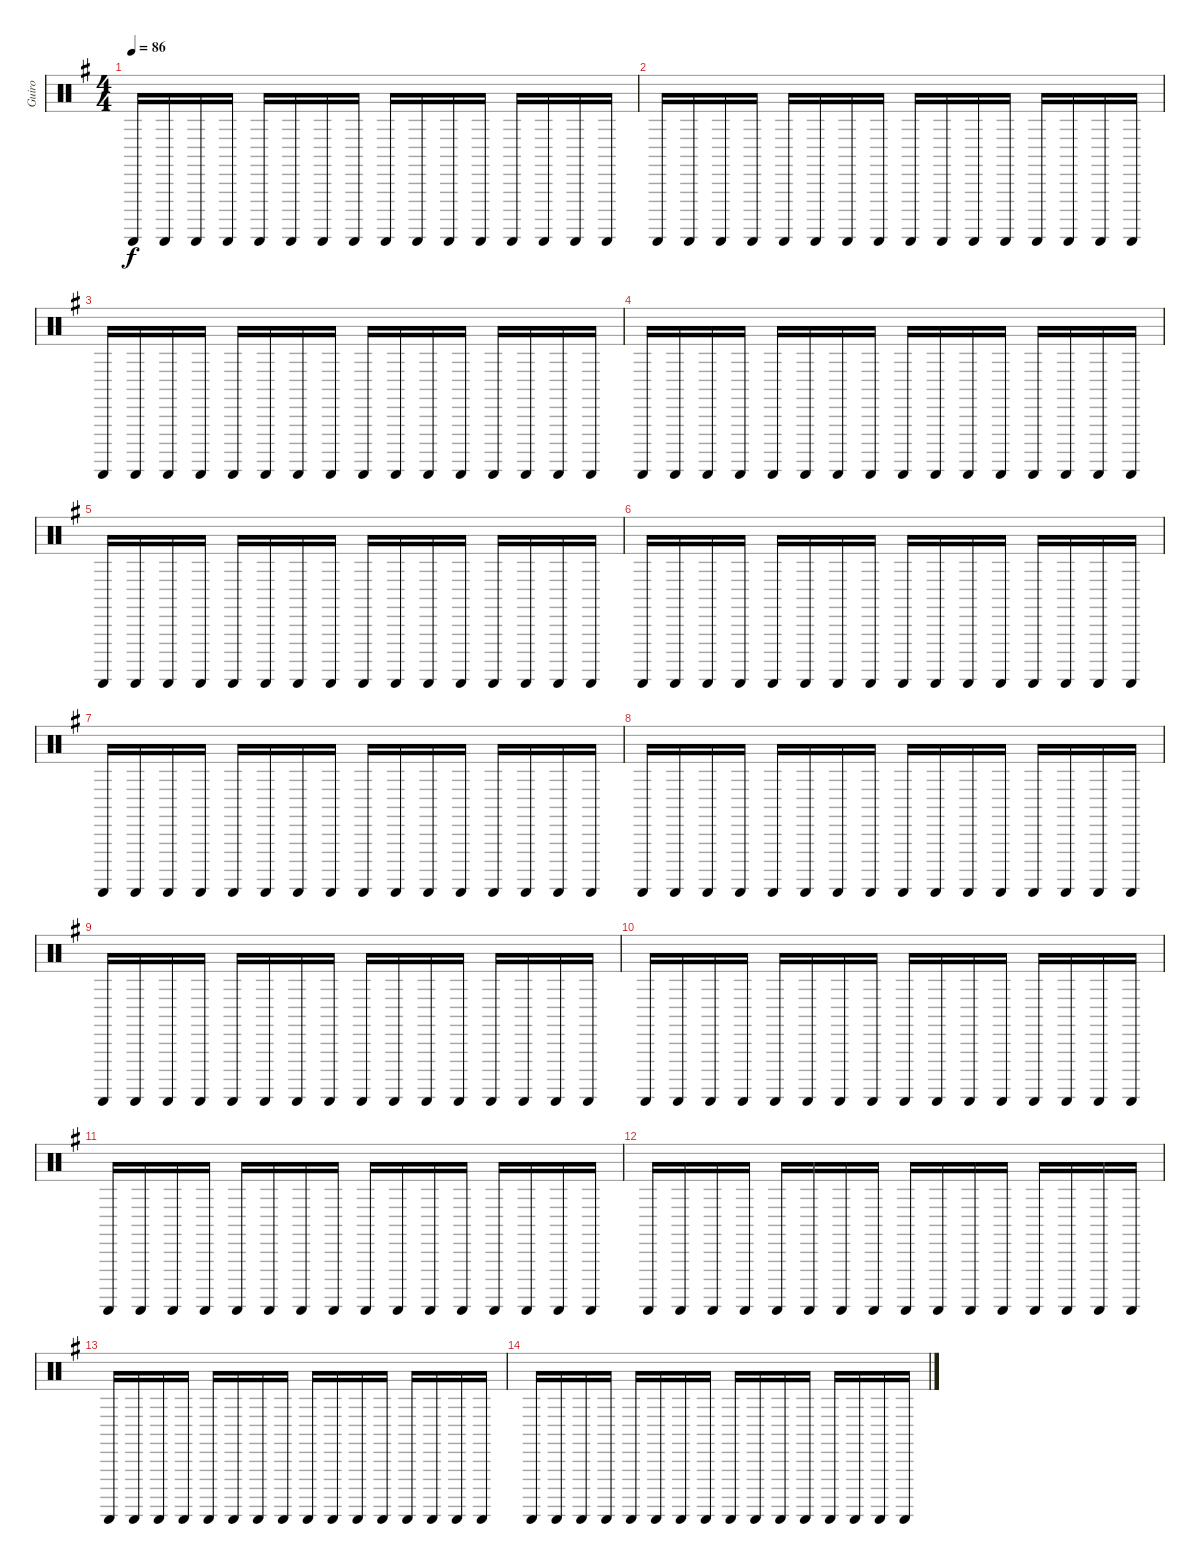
\track ("Guiro" "Guiro") {instrument percussion}
\staff {score}
\articulation defaults
\ts (4 4)
\tempo 86
\clef neutral
\ks g "Guiro (scrap-return)".16{dy f} "Guiro (scrap-return)".16 "Guiro (scrap-return)".16 "Guiro (scrap-return)".16 "Guiro (scrap-return)".16 "Guiro (scrap-return)".16 "Guiro (scrap-return)".16 "Guiro (scrap-return)".16 "Guiro (scrap-return)".16 "Guiro (scrap-return)".16 "Guiro (scrap-return)".16 "Guiro (scrap-return)".16 "Guiro (scrap-return)".16 "Guiro (scrap-return)".16 "Guiro (scrap-return)".16 "Guiro (scrap-return)".16
|
"Guiro (scrap-return)".16 "Guiro (scrap-return)".16 "Guiro (scrap-return)".16 "Guiro (scrap-return)".16 "Guiro (scrap-return)".16 "Guiro (scrap-return)".16 "Guiro (scrap-return)".16 "Guiro (scrap-return)".16 "Guiro (scrap-return)".16 "Guiro (scrap-return)".16 "Guiro (scrap-return)".16 "Guiro (scrap-return)".16 "Guiro (scrap-return)".16 "Guiro (scrap-return)".16 "Guiro (scrap-return)".16 "Guiro (scrap-return)".16 |
"Guiro (scrap-return)".16 "Guiro (scrap-return)".16 "Guiro (scrap-return)".16 "Guiro (scrap-return)".16 "Guiro (scrap-return)".16 "Guiro (scrap-return)".16 "Guiro (scrap-return)".16 "Guiro (scrap-return)".16 "Guiro (scrap-return)".16 "Guiro (scrap-return)".16 "Guiro (scrap-return)".16 "Guiro (scrap-return)".16 "Guiro (scrap-return)".16 "Guiro (scrap-return)".16 "Guiro (scrap-return)".16 "Guiro (scrap-return)".16 |
"Guiro (scrap-return)".16 "Guiro (scrap-return)".16 "Guiro (scrap-return)".16 "Guiro (scrap-return)".16 "Guiro (scrap-return)".16 "Guiro (scrap-return)".16 "Guiro (scrap-return)".16 "Guiro (scrap-return)".16 "Guiro (scrap-return)".16 "Guiro (scrap-return)".16 "Guiro (scrap-return)".16 "Guiro (scrap-return)".16 "Guiro (scrap-return)".16 "Guiro (scrap-return)".16 "Guiro (scrap-return)".16 "Guiro (scrap-return)".16 |
"Guiro (scrap-return)".16 "Guiro (scrap-return)".16 "Guiro (scrap-return)".16 "Guiro (scrap-return)".16 "Guiro (scrap-return)".16 "Guiro (scrap-return)".16 "Guiro (scrap-return)".16 "Guiro (scrap-return)".16 "Guiro (scrap-return)".16 "Guiro (scrap-return)".16 "Guiro (scrap-return)".16 "Guiro (scrap-return)".16 "Guiro (scrap-return)".16 "Guiro (scrap-return)".16 "Guiro (scrap-return)".16 "Guiro (scrap-return)".16 |
"Guiro (scrap-return)".16 "Guiro (scrap-return)".16 "Guiro (scrap-return)".16 "Guiro (scrap-return)".16 "Guiro (scrap-return)".16 "Guiro (scrap-return)".16 "Guiro (scrap-return)".16 "Guiro (scrap-return)".16 "Guiro (scrap-return)".16 "Guiro (scrap-return)".16 "Guiro (scrap-return)".16 "Guiro (scrap-return)".16 "Guiro (scrap-return)".16 "Guiro (scrap-return)".16 "Guiro (scrap-return)".16 "Guiro (scrap-return)".16 |
"Guiro (scrap-return)".16 "Guiro (scrap-return)".16 "Guiro (scrap-return)".16 "Guiro (scrap-return)".16 "Guiro (scrap-return)".16 "Guiro (scrap-return)".16 "Guiro (scrap-return)".16 "Guiro (scrap-return)".16 "Guiro (scrap-return)".16 "Guiro (scrap-return)".16 "Guiro (scrap-return)".16 "Guiro (scrap-return)".16 "Guiro (scrap-return)".16 "Guiro (scrap-return)".16 "Guiro (scrap-return)".16 "Guiro (scrap-return)".16 |
"Guiro (scrap-return)".16 "Guiro (scrap-return)".16 "Guiro (scrap-return)".16 "Guiro (scrap-return)".16 "Guiro (scrap-return)".16 "Guiro (scrap-return)".16 "Guiro (scrap-return)".16 "Guiro (scrap-return)".16 "Guiro (scrap-return)".16 "Guiro (scrap-return)".16 "Guiro (scrap-return)".16 "Guiro (scrap-return)".16 "Guiro (scrap-return)".16 "Guiro (scrap-return)".16 "Guiro (scrap-return)".16 "Guiro (scrap-return)".16 |
"Guiro (scrap-return)".16 "Guiro (scrap-return)".16 "Guiro (scrap-return)".16 "Guiro (scrap-return)".16 "Guiro (scrap-return)".16 "Guiro (scrap-return)".16 "Guiro (scrap-return)".16 "Guiro (scrap-return)".16 "Guiro (scrap-return)".16 "Guiro (scrap-return)".16 "Guiro (scrap-return)".16 "Guiro (scrap-return)".16 "Guiro (scrap-return)".16 "Guiro (scrap-return)".16 "Guiro (scrap-return)".16 "Guiro (scrap-return)".16 |
"Guiro (scrap-return)".16 "Guiro (scrap-return)".16 "Guiro (scrap-return)".16 "Guiro (scrap-return)".16 "Guiro (scrap-return)".16 "Guiro (scrap-return)".16 "Guiro (scrap-return)".16 "Guiro (scrap-return)".16 "Guiro (scrap-return)".16 "Guiro (scrap-return)".16 "Guiro (scrap-return)".16 "Guiro (scrap-return)".16 "Guiro (scrap-return)".16 "Guiro (scrap-return)".16 "Guiro (scrap-return)".16 "Guiro (scrap-return)".16 |
"Guiro (scrap-return)".16 "Guiro (scrap-return)".16 "Guiro (scrap-return)".16 "Guiro (scrap-return)".16 "Guiro (scrap-return)".16 "Guiro (scrap-return)".16 "Guiro (scrap-return)".16 "Guiro (scrap-return)".16 "Guiro (scrap-return)".16 "Guiro (scrap-return)".16 "Guiro (scrap-return)".16 "Guiro (scrap-return)".16 "Guiro (scrap-return)".16 "Guiro (scrap-return)".16 "Guiro (scrap-return)".16 "Guiro (scrap-return)".16 |
"Guiro (scrap-return)".16 "Guiro (scrap-return)".16 "Guiro (scrap-return)".16 "Guiro (scrap-return)".16 "Guiro (scrap-return)".16 "Guiro (scrap-return)".16 "Guiro (scrap-return)".16 "Guiro (scrap-return)".16 "Guiro (scrap-return)".16 "Guiro (scrap-return)".16 "Guiro (scrap-return)".16 "Guiro (scrap-return)".16 "Guiro (scrap-return)".16 "Guiro (scrap-return)".16 "Guiro (scrap-return)".16 "Guiro (scrap-return)".16 |
"Guiro (scrap-return)".16 "Guiro (scrap-return)".16 "Guiro (scrap-return)".16 "Guiro (scrap-return)".16 "Guiro (scrap-return)".16 "Guiro (scrap-return)".16 "Guiro (scrap-return)".16 "Guiro (scrap-return)".16 "Guiro (scrap-return)".16 "Guiro (scrap-return)".16 "Guiro (scrap-return)".16 "Guiro (scrap-return)".16 "Guiro (scrap-return)".16 "Guiro (scrap-return)".16 "Guiro (scrap-return)".16 "Guiro (scrap-return)".16 |
"Guiro (scrap-return)".16 "Guiro (scrap-return)".16 "Guiro (scrap-return)".16 "Guiro (scrap-return)".16 "Guiro (scrap-return)".16 "Guiro (scrap-return)".16 "Guiro (scrap-return)".16 "Guiro (scrap-return)".16 "Guiro (scrap-return)".16 "Guiro (scrap-return)".16 "Guiro (scrap-return)".16 "Guiro (scrap-return)".16 "Guiro (scrap-return)".16 "Guiro (scrap-return)".16 "Guiro (scrap-return)".16 "Guiro (scrap-return)".16
